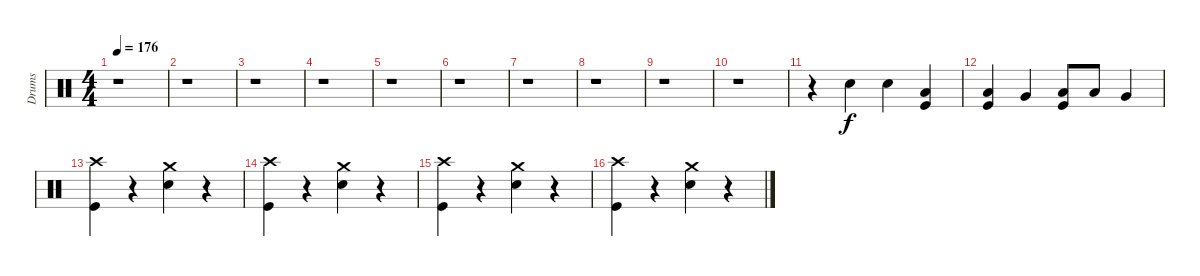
\track ("Drums" "Drums") {instrument percussion}
\staff {score}
\articulation defaults
\ts (4 4)
\tempo 176
\clef neutral
\ks c
r.1{dy f} |
r.1 |
r.1 |
r.1 |
r.1 |
r.1 |
r.1 |
r.1 |
r.1 |
r.1 |
r.4 "Snare (hit) 2".4 "Snare (hit) 2".4 ("Kick (hit)" "Low Tom (hit)").4 |
("Kick (hit)" "Low Tom (hit)").4 "Very Low Tom (hit)".4 ("Kick (hit)" "Low Floor Tom (hit)").8 "Low Floor Tom (hit)".8 "Very Low Tom (hit)".4 |
("Crash high (hit)" "Kick (hit)").4 r.4 ("Crash medium (hit)" "Electric Snare (hit)").4 r.4 |
("Crash high (hit)" "Kick (hit)").4 r.4 ("Crash medium (hit)" "Electric Snare (hit)").4 r.4 |
("Crash high (hit)" "Kick (hit)").4 r.4 ("Crash medium (hit)" "Electric Snare (hit)").4 r.4 |
("Crash high (hit)" "Kick (hit)").4 r.4 ("Crash medium (hit)" "Electric Snare (hit)").4 r.4
